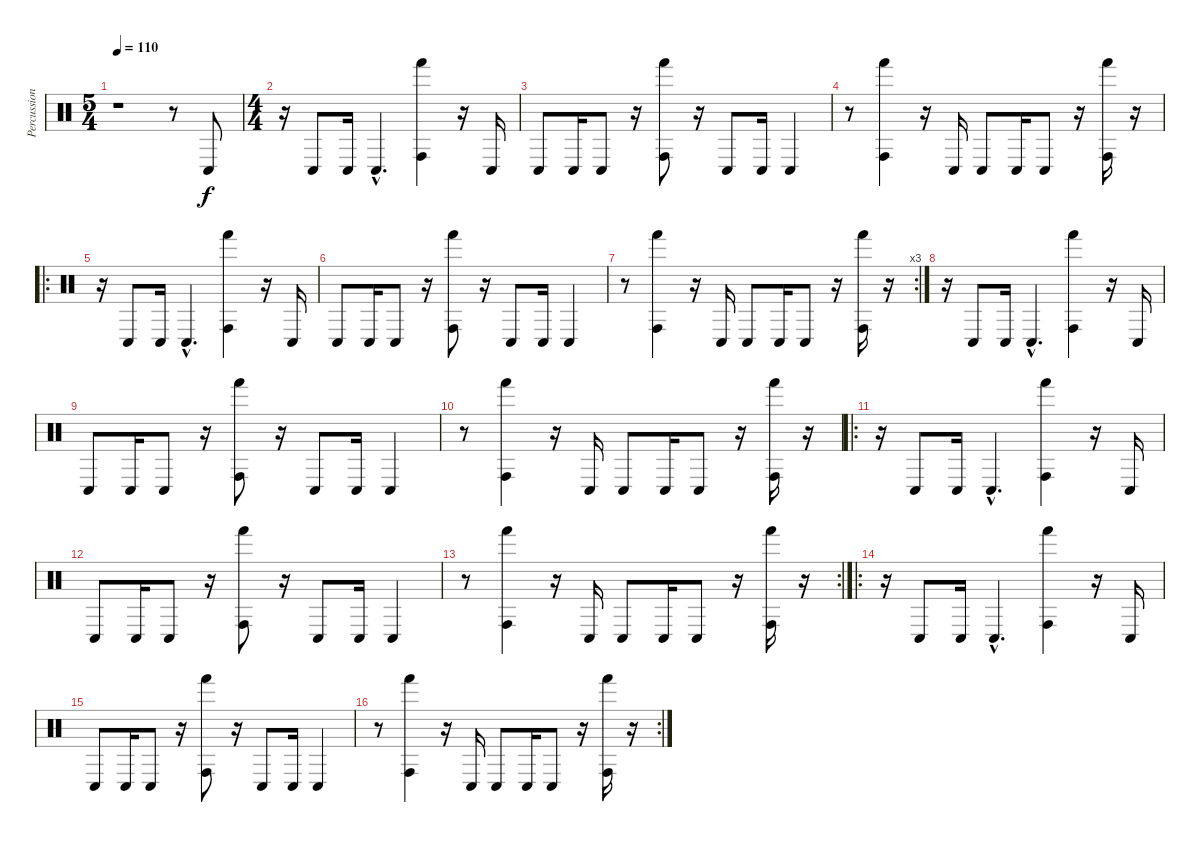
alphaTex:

\track ("Percussion" "Percussion") {instrument percussion}
\staff {score}
\articulation defaults
\ts (5 4)
\tempo 110
\clef neutral
\ks c
r.1{dy f} r.8 "Conga low (hit)".8 |
\ts (4 4)
r.16 "Conga low (hit)".8 "Conga low (hit)".16 "Conga low (hit)"{hac}.4{d} ("Conga high (hit)" "Hand (hit)").4 r.16 "Conga low (hit)".16 |
"Conga low (hit)".8 "Conga low (hit)".16 "Conga low (hit)".8 r.16 ("Conga high (hit)" "Hand (hit)").8 r.16 "Conga low (hit)".8 "Conga low (hit)".16 "Conga low (hit)".4 |
r.8 ("Conga high (hit)" "Hand (hit)").4 r.16 "Conga low (hit)".16 "Conga low (hit)".8 "Conga low (hit)".16 "Conga low (hit)".8 r.16 ("Conga high (hit)" "Hand (hit)").16 r.16 |
\ro
r.16 "Conga low (hit)".8 "Conga low (hit)".16 "Conga low (hit)"{hac}.4{d} ("Conga high (hit)" "Hand (hit)").4 r.16 "Conga low (hit)".16 |
"Conga low (hit)".8 "Conga low (hit)".16 "Conga low (hit)".8 r.16 ("Conga high (hit)" "Hand (hit)").8 r.16 "Conga low (hit)".8 "Conga low (hit)".16 "Conga low (hit)".4 |
\rc 3
r.8 ("Conga high (hit)" "Hand (hit)").4 r.16 "Conga low (hit)".16 "Conga low (hit)".8 "Conga low (hit)".16 "Conga low (hit)".8 r.16 ("Conga high (hit)" "Hand (hit)").16 r.16 |
r.16 "Conga low (hit)".8 "Conga low (hit)".16 "Conga low (hit)"{hac}.4{d} ("Conga high (hit)" "Hand (hit)").4 r.16 "Conga low (hit)".16 |
"Conga low (hit)".8 "Conga low (hit)".16 "Conga low (hit)".8 r.16 ("Conga high (hit)" "Hand (hit)").8 r.16 "Conga low (hit)".8 "Conga low (hit)".16 "Conga low (hit)".4 |
r.8 ("Conga high (hit)" "Hand (hit)").4 r.16 "Conga low (hit)".16 "Conga low (hit)".8 "Conga low (hit)".16 "Conga low (hit)".8 r.16 ("Conga high (hit)" "Hand (hit)").16 r.16 |
\ro
r.16 "Conga low (hit)".8 "Conga low (hit)".16 "Conga low (hit)"{hac}.4{d} ("Conga high (hit)" "Hand (hit)").4 r.16 "Conga low (hit)".16 |
"Conga low (hit)".8 "Conga low (hit)".16 "Conga low (hit)".8 r.16 ("Conga high (hit)" "Hand (hit)").8 r.16 "Conga low (hit)".8 "Conga low (hit)".16 "Conga low (hit)".4 |
\rc 2
r.8 ("Conga high (hit)" "Hand (hit)").4 r.16 "Conga low (hit)".16 "Conga low (hit)".8 "Conga low (hit)".16 "Conga low (hit)".8 r.16 ("Conga high (hit)" "Hand (hit)").16 r.16 |
\ro
r.16 "Conga low (hit)".8 "Conga low (hit)".16 "Conga low (hit)"{hac}.4{d} ("Conga high (hit)" "Hand (hit)").4 r.16 "Conga low (hit)".16 |
"Conga low (hit)".8 "Conga low (hit)".16 "Conga low (hit)".8 r.16 ("Conga high (hit)" "Hand (hit)").8 r.16 "Conga low (hit)".8 "Conga low (hit)".16 "Conga low (hit)".4 |
\rc 2
r.8 ("Conga high (hit)" "Hand (hit)").4 r.16 "Conga low (hit)".16 "Conga low (hit)".8 "Conga low (hit)".16 "Conga low (hit)".8 r.16 ("Conga high (hit)" "Hand (hit)").16 r.16
